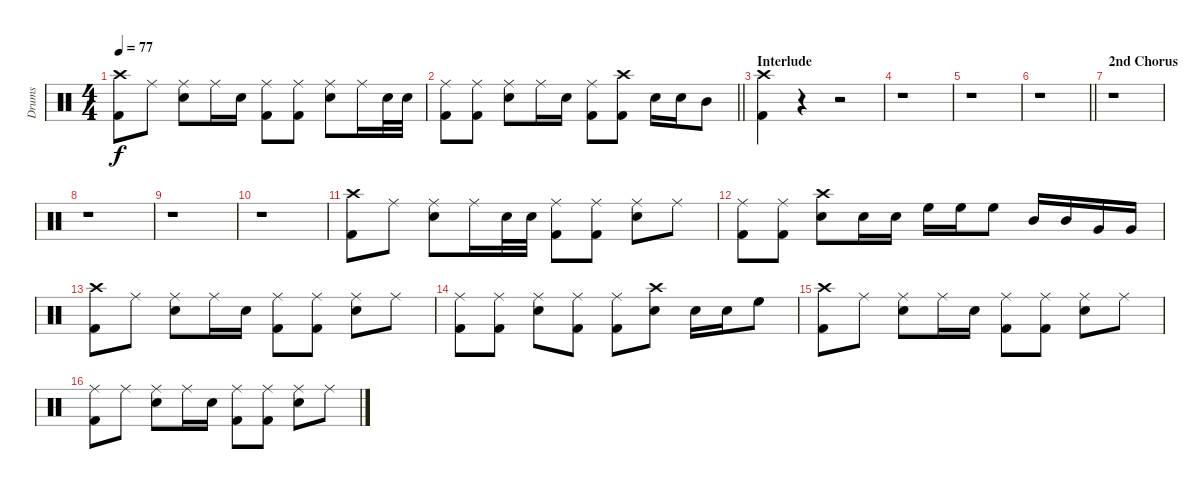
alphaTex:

\track ("Drums" "Drums") {instrument percussion}
\staff {score}
\articulation defaults
\ts (4 4)
\tempo 77
\clef neutral
\ks c
("Crash high (hit)" "Kick (hit) 2").8{dy f} "Ride (middle)".8 ("Ride (middle)" "Snare (hit) 2").8 "Ride (middle)".16 "Snare (hit) 2".16 ("Ride (middle)" "Kick (hit) 2").8 ("Ride (middle)" "Kick (hit) 2").8 ("Ride (middle)" "Snare (hit) 2").8 "Ride (middle)".16 "Snare (hit) 2".32 "Snare (hit) 2".32 |
\barLineRight lightlight
("Ride (middle)" "Kick (hit) 2").8 ("Ride (middle)" "Kick (hit) 2").8 ("Ride (middle)" "Snare (hit) 2").8 "Ride (middle)".16 "Snare (hit) 2".16 ("Ride (middle)" "Kick (hit) 2").8 ("Crash high (hit)" "Kick (hit) 2").8 "Snare (hit) 2".16 "Snare (hit) 2".16 "Mid Tom (hit)".8 |
\section ("" "Interlude")
("Crash high (hit)" "Kick (hit) 2").4 r.4 r.2 |
r.1 |
r.1 |
\barLineRight lightlight
r.1 |
\section ("" "2nd Chorus")
r.1 |
r.1 |
r.1 |
r.1 |
("Crash high (hit)" "Kick (hit) 2").8 "Ride (middle)".8 ("Ride (middle)" "Snare (hit) 2").8 "Ride (middle)".16 "Snare (hit) 2".32 "Snare (hit) 2".32 ("Ride (middle)" "Kick (hit) 2").8 ("Ride (middle)" "Kick (hit) 2").8 ("Ride (middle)" "Snare (hit) 2").8 "Ride (middle)".8 |
("Ride (middle)" "Kick (hit) 2").8 ("Ride (middle)" "Kick (hit) 2").8 ("Crash high (hit)" "Snare (hit) 2").8 "Snare (hit) 2".16 "Snare (hit) 2".16 "High Floor Tom (hit)".16 "High Floor Tom (hit)".16 "High Floor Tom (hit)".8 "Mid Tom (hit)".16 "Mid Tom (hit)".16 "Very Low Tom (hit)".16 "Very Low Tom (hit)".16 |
("Crash high (hit)" "Kick (hit) 2").8 "Ride (middle)".8 ("Ride (middle)" "Snare (hit) 2").8 "Ride (middle)".16 "Snare (hit) 2".16 ("Ride (middle)" "Kick (hit) 2").8 ("Ride (middle)" "Kick (hit) 2").8 ("Ride (middle)" "Snare (hit) 2").8 "Ride (middle)".8 |
("Ride (middle)" "Kick (hit) 2").8 ("Ride (middle)" "Kick (hit) 2").8 ("Ride (middle)" "Snare (hit) 2").8 ("Ride (middle)" "Kick (hit) 2").8 ("Ride (middle)" "Kick (hit) 2").8 ("Crash high (hit)" "Snare (hit) 2").8 "Snare (hit) 2".16 "Snare (hit) 2".16 "High Floor Tom (hit)".8 |
("Crash high (hit)" "Kick (hit) 2").8 "Ride (middle)".8 ("Ride (middle)" "Snare (hit) 2").8 "Ride (middle)".16 "Snare (hit) 2".16 ("Ride (middle)" "Kick (hit) 2").8 ("Ride (middle)" "Kick (hit) 2").8 ("Ride (middle)" "Snare (hit) 2").8 "Ride (middle)".8 |
("Ride (middle)" "Kick (hit) 2").8 "Ride (middle)".8 ("Ride (middle)" "Snare (hit) 2").8 "Ride (middle)".16 "Snare (hit) 2".16 ("Ride (middle)" "Kick (hit) 2").8 ("Ride (middle)" "Kick (hit) 2").8 ("Ride (middle)" "Snare (hit) 2").8 "Ride (middle)".8
